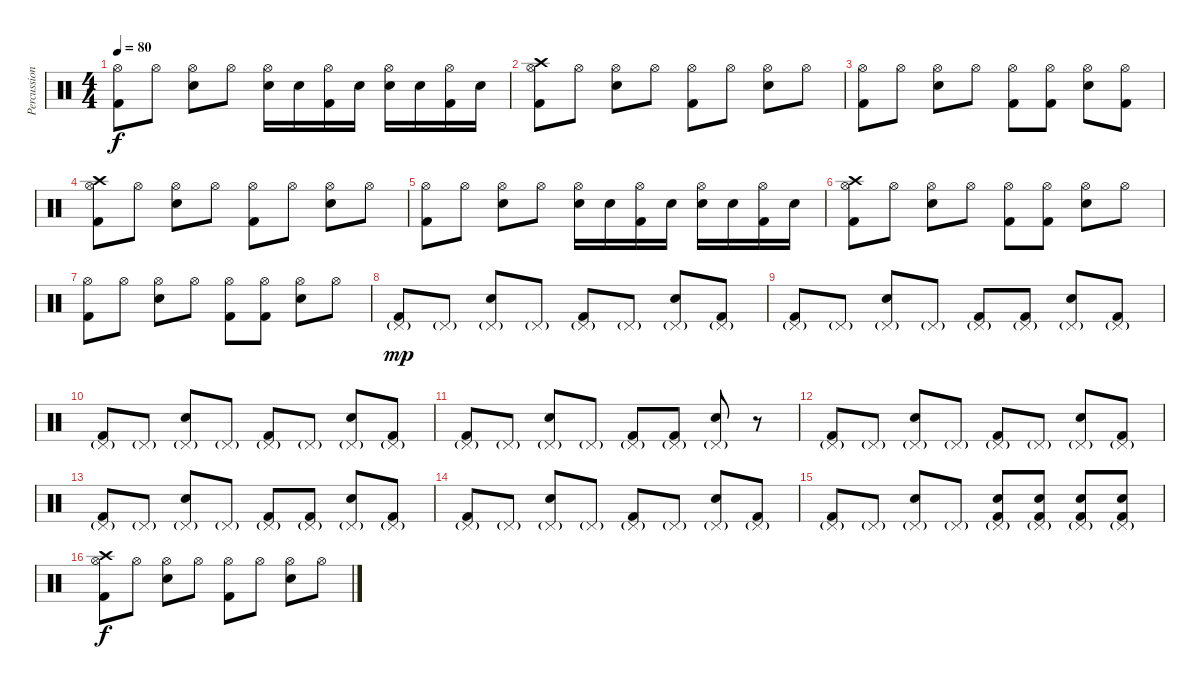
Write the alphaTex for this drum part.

\track ("Percussion" "Percussion") {instrument percussion}
\staff {score}
\articulation defaults
\ts (4 4)
\tempo 80
\clef neutral
\ks c
("Kick (hit) 2" "Hi-Hat (open)").8{dy f} "Hi-Hat (open)".8 ("Snare (hit) 2" "Hi-Hat (open)").8 "Hi-Hat (open)".8 ("Snare (hit) 2" "Hi-Hat (open)").16 "Snare (hit) 2".16 ("Kick (hit) 2" "Hi-Hat (open)").16 "Snare (hit) 2".16 ("Snare (hit) 2" "Hi-Hat (open)").16 "Snare (hit) 2".16 ("Kick (hit) 2" "Hi-Hat (open)").16 "Snare (hit) 2".16 |
("Kick (hit) 2" "Hi-Hat (open)" "Crash high (hit)").8 "Hi-Hat (open)".8 ("Snare (hit) 2" "Hi-Hat (open)").8 "Hi-Hat (open)".8 ("Kick (hit) 2" "Hi-Hat (open)").8 "Hi-Hat (open)".8 ("Snare (hit) 2" "Hi-Hat (open)").8 "Hi-Hat (open)".8 |
("Kick (hit) 2" "Hi-Hat (open)").8 "Hi-Hat (open)".8 ("Snare (hit) 2" "Hi-Hat (open)").8 "Hi-Hat (open)".8 ("Kick (hit) 2" "Hi-Hat (open)").8 ("Kick (hit) 2" "Hi-Hat (open)").8 ("Snare (hit) 2" "Hi-Hat (open)").8 ("Kick (hit) 2" "Hi-Hat (open)").8 |
("Kick (hit) 2" "Hi-Hat (open)" "Crash high (hit)").8 "Hi-Hat (open)".8 ("Snare (hit) 2" "Hi-Hat (open)").8 "Hi-Hat (open)".8 ("Kick (hit) 2" "Hi-Hat (open)").8 "Hi-Hat (open)".8 ("Snare (hit) 2" "Hi-Hat (open)").8 "Hi-Hat (open)".8 |
("Kick (hit) 2" "Hi-Hat (open)").8 "Hi-Hat (open)".8 ("Snare (hit) 2" "Hi-Hat (open)").8 "Hi-Hat (open)".8 ("Snare (hit) 2" "Hi-Hat (open)").16 "Snare (hit) 2".16 ("Kick (hit) 2" "Hi-Hat (open)").16 "Snare (hit) 2".16 ("Snare (hit) 2" "Hi-Hat (open)").16 "Snare (hit) 2".16 ("Kick (hit) 2" "Hi-Hat (open)").16 "Snare (hit) 2".16 |
("Kick (hit) 2" "Hi-Hat (open)" "Crash high (hit)").8 "Hi-Hat (open)".8 ("Snare (hit) 2" "Hi-Hat (open)").8 "Hi-Hat (open)".8 ("Kick (hit) 2" "Hi-Hat (open)").8 ("Kick (hit) 2" "Hi-Hat (open)").8 ("Snare (hit) 2" "Hi-Hat (open)").8 "Hi-Hat (open)".8 |
("Kick (hit) 2" "Hi-Hat (open)").8 "Hi-Hat (open)".8 ("Snare (hit) 2" "Hi-Hat (open)").8 "Hi-Hat (open)".8 ("Kick (hit) 2" "Hi-Hat (open)").8 ("Kick (hit) 2" "Hi-Hat (open)").8 ("Snare (hit) 2" "Hi-Hat (open)").8 "Hi-Hat (open)".8 |
("Kick (hit) 2" "Pedal Hi-Hat (hit)"{g}).8{dy mp} "Pedal Hi-Hat (hit)"{g}.8 ("Snare (hit) 2" "Pedal Hi-Hat (hit)"{g}).8 "Pedal Hi-Hat (hit)"{g}.8 ("Kick (hit) 2" "Pedal Hi-Hat (hit)"{g}).8 "Pedal Hi-Hat (hit)"{g}.8 ("Snare (hit) 2" "Pedal Hi-Hat (hit)"{g}).8 ("Kick (hit) 2" "Pedal Hi-Hat (hit)"{g}).8 |
("Kick (hit) 2" "Pedal Hi-Hat (hit)"{g}).8 "Pedal Hi-Hat (hit)"{g}.8 ("Snare (hit) 2" "Pedal Hi-Hat (hit)"{g}).8 "Pedal Hi-Hat (hit)"{g}.8 ("Kick (hit) 2" "Pedal Hi-Hat (hit)"{g}).8 ("Kick (hit) 2" "Pedal Hi-Hat (hit)"{g}).8 ("Snare (hit) 2" "Pedal Hi-Hat (hit)"{g}).8 ("Kick (hit) 2" "Pedal Hi-Hat (hit)"{g}).8 |
("Kick (hit) 2" "Pedal Hi-Hat (hit)"{g}).8 "Pedal Hi-Hat (hit)"{g}.8 ("Snare (hit) 2" "Pedal Hi-Hat (hit)"{g}).8 "Pedal Hi-Hat (hit)"{g}.8 ("Kick (hit) 2" "Pedal Hi-Hat (hit)"{g}).8 "Pedal Hi-Hat (hit)"{g}.8 ("Snare (hit) 2" "Pedal Hi-Hat (hit)"{g}).8 ("Kick (hit) 2" "Pedal Hi-Hat (hit)"{g}).8 |
("Kick (hit) 2" "Pedal Hi-Hat (hit)"{g}).8 "Pedal Hi-Hat (hit)"{g}.8 ("Snare (hit) 2" "Pedal Hi-Hat (hit)"{g}).8 "Pedal Hi-Hat (hit)"{g}.8 ("Kick (hit) 2" "Pedal Hi-Hat (hit)"{g}).8 ("Kick (hit) 2" "Pedal Hi-Hat (hit)"{g}).8 ("Snare (hit) 2" "Pedal Hi-Hat (hit)"{g}).8 r.8 |
("Kick (hit) 2" "Pedal Hi-Hat (hit)"{g}).8 "Pedal Hi-Hat (hit)"{g}.8 ("Snare (hit) 2" "Pedal Hi-Hat (hit)"{g}).8 "Pedal Hi-Hat (hit)"{g}.8 ("Kick (hit) 2" "Pedal Hi-Hat (hit)"{g}).8 "Pedal Hi-Hat (hit)"{g}.8 ("Snare (hit) 2" "Pedal Hi-Hat (hit)"{g}).8 ("Kick (hit) 2" "Pedal Hi-Hat (hit)"{g}).8 |
("Kick (hit) 2" "Pedal Hi-Hat (hit)"{g}).8 "Pedal Hi-Hat (hit)"{g}.8 ("Snare (hit) 2" "Pedal Hi-Hat (hit)"{g}).8 "Pedal Hi-Hat (hit)"{g}.8 ("Kick (hit) 2" "Pedal Hi-Hat (hit)"{g}).8 ("Kick (hit) 2" "Pedal Hi-Hat (hit)"{g}).8 ("Snare (hit) 2" "Pedal Hi-Hat (hit)"{g}).8 ("Kick (hit) 2" "Pedal Hi-Hat (hit)"{g}).8 |
("Kick (hit) 2" "Pedal Hi-Hat (hit)"{g}).8 "Pedal Hi-Hat (hit)"{g}.8 ("Snare (hit) 2" "Pedal Hi-Hat (hit)"{g}).8 "Pedal Hi-Hat (hit)"{g}.8 ("Kick (hit) 2" "Pedal Hi-Hat (hit)"{g}).8 "Pedal Hi-Hat (hit)"{g}.8 ("Snare (hit) 2" "Pedal Hi-Hat (hit)"{g}).8 ("Kick (hit) 2" "Pedal Hi-Hat (hit)"{g}).8 |
("Kick (hit) 2" "Pedal Hi-Hat (hit)"{g}).8 "Pedal Hi-Hat (hit)"{g}.8 ("Snare (hit) 2" "Pedal Hi-Hat (hit)"{g}).8 "Pedal Hi-Hat (hit)"{g}.8 ("Snare (hit) 2" "Kick (hit) 2" "Pedal Hi-Hat (hit)"{g}).8 ("Snare (hit) 2" "Kick (hit) 2" "Pedal Hi-Hat (hit)"{g}).8 ("Snare (hit) 2" "Kick (hit) 2" "Pedal Hi-Hat (hit)"{g}).8 ("Snare (hit) 2" "Kick (hit) 2" "Pedal Hi-Hat (hit)"{g}).8 |
("Kick (hit) 2" "Hi-Hat (open)" "Crash high (hit)").8{dy f} "Hi-Hat (open)".8 ("Snare (hit) 2" "Hi-Hat (open)").8 "Hi-Hat (open)".8 ("Kick (hit) 2" "Hi-Hat (open)").8 "Hi-Hat (open)".8 ("Snare (hit) 2" "Hi-Hat (open)").8 "Hi-Hat (open)".8
